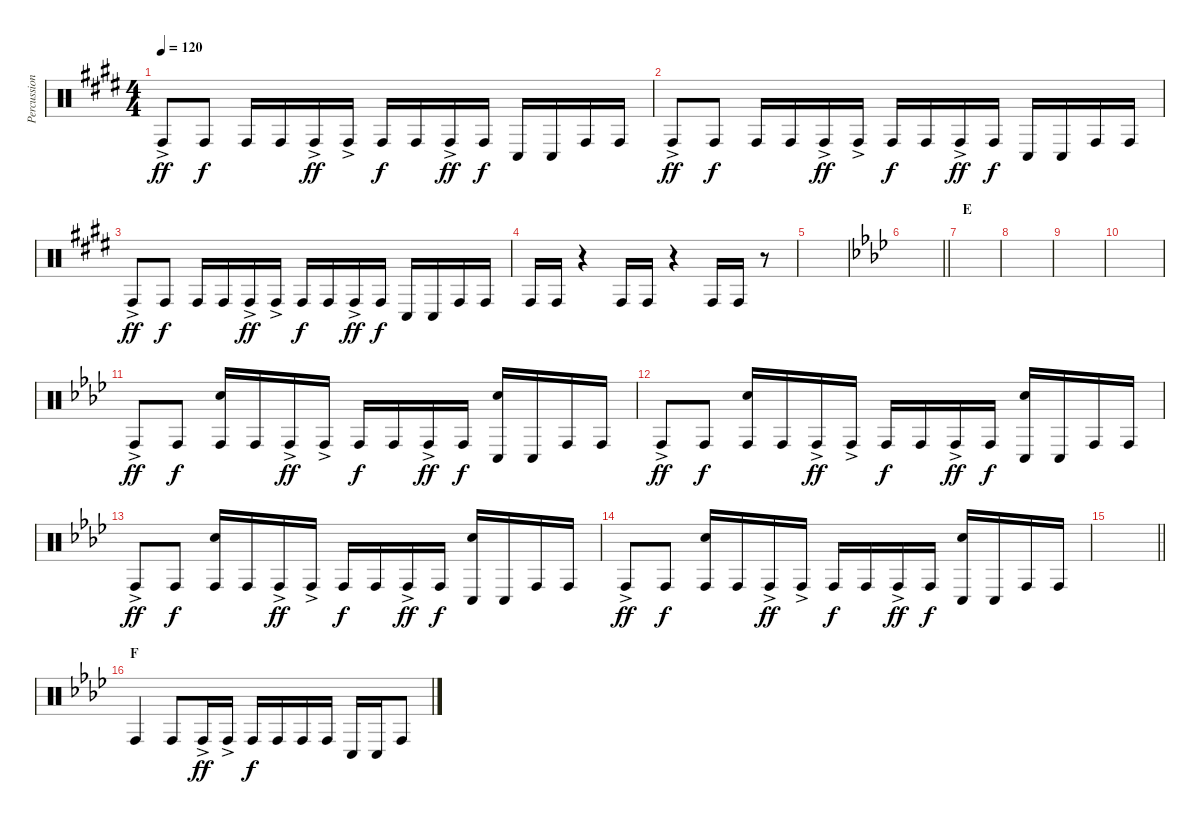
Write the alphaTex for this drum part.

\track ("Percussion" "Percussion") {instrument percussion}
\staff {score}
\articulation defaults
\ts (4 4)
\tempo 120
\clef neutral
\ks e "Conga high (hit)"{ac}.8{dy ff} "Conga high (hit)".8{dy f} "Conga high (hit)".16 "Conga high (hit)".16 "Conga high (hit)"{ac}.16{dy ff} "Conga high (hit)"{ac}.16 "Conga high (hit)".16{dy f} "Conga high (hit)".16 "Conga high (hit)"{ac}.16{dy ff} "Conga high (hit)".16{dy f} "Conga low (hit)".16 "Conga low (hit)".16 "Conga high (hit)".16 "Conga high (hit)".16
|
"Conga high (hit)"{ac}.8{dy ff} "Conga high (hit)".8{dy f} "Conga high (hit)".16 "Conga high (hit)".16 "Conga high (hit)"{ac}.16{dy ff} "Conga high (hit)"{ac}.16 "Conga high (hit)".16{dy f} "Conga high (hit)".16 "Conga high (hit)"{ac}.16{dy ff} "Conga high (hit)".16{dy f} "Conga low (hit)".16 "Conga low (hit)".16 "Conga high (hit)".16 "Conga high (hit)".16 |
"Conga high (hit)"{ac}.8{dy ff} "Conga high (hit)".8{dy f} "Conga high (hit)".16 "Conga high (hit)".16 "Conga high (hit)"{ac}.16{dy ff} "Conga high (hit)"{ac}.16 "Conga high (hit)".16{dy f} "Conga high (hit)".16 "Conga high (hit)"{ac}.16{dy ff} "Conga high (hit)".16{dy f} "Conga low (hit)".16 "Conga low (hit)".16 "Conga high (hit)".16 "Conga high (hit)".16 |
"Conga high (hit)".16 "Conga high (hit)".16 r.4 "Conga high (hit)".16 "Conga high (hit)".16 r.4 "Conga high (hit)".16 "Conga high (hit)".16 r.8 |
|
\barLineRight lightlight
\ks ab
|
\section ("" "E")
|
|
|
|
"Conga high (hit)"{ac}.8{dy ff} "Conga high (hit)".8{dy f} ("Conga high (hit)" "Hand Clap (hit)").16 "Conga high (hit)".16 "Conga high (hit)"{ac}.16{dy ff} "Conga high (hit)"{ac}.16 "Conga high (hit)".16{dy f} "Conga high (hit)".16 "Conga high (hit)"{ac}.16{dy ff} "Conga high (hit)".16{dy f} ("Conga low (hit)" "Hand Clap (hit)").16 "Conga low (hit)".16 "Conga high (hit)".16 "Conga high (hit)".16 |
"Conga high (hit)"{ac}.8{dy ff} "Conga high (hit)".8{dy f} ("Conga high (hit)" "Hand Clap (hit)").16 "Conga high (hit)".16 "Conga high (hit)"{ac}.16{dy ff} "Conga high (hit)"{ac}.16 "Conga high (hit)".16{dy f} "Conga high (hit)".16 "Conga high (hit)"{ac}.16{dy ff} "Conga high (hit)".16{dy f} ("Conga low (hit)" "Hand Clap (hit)").16 "Conga low (hit)".16 "Conga high (hit)".16 "Conga high (hit)".16 |
"Conga high (hit)"{ac}.8{dy ff} "Conga high (hit)".8{dy f} ("Conga high (hit)" "Hand Clap (hit)").16 "Conga high (hit)".16 "Conga high (hit)"{ac}.16{dy ff} "Conga high (hit)"{ac}.16 "Conga high (hit)".16{dy f} "Conga high (hit)".16 "Conga high (hit)"{ac}.16{dy ff} "Conga high (hit)".16{dy f} ("Conga low (hit)" "Hand Clap (hit)").16 "Conga low (hit)".16 "Conga high (hit)".16 "Conga high (hit)".16 |
"Conga high (hit)"{ac}.8{dy ff} "Conga high (hit)".8{dy f} ("Conga high (hit)" "Hand Clap (hit)").16 "Conga high (hit)".16 "Conga high (hit)"{ac}.16{dy ff} "Conga high (hit)"{ac}.16 "Conga high (hit)".16{dy f} "Conga high (hit)".16 "Conga high (hit)"{ac}.16{dy ff} "Conga high (hit)".16{dy f} ("Conga low (hit)" "Hand Clap (hit)").16 "Conga low (hit)".16 "Conga high (hit)".16 "Conga high (hit)".16 |
\barLineRight lightlight
|
\section ("" "F")
"Conga high (hit)".4 "Conga high (hit)".8 "Conga high (hit)"{ac}.16{dy ff} "Conga high (hit)"{ac}.16 "Conga high (hit)".16{dy f} "Conga high (hit)".16 "Conga high (hit)".16 "Conga high (hit)".16 "Conga low (hit)".16 "Conga low (hit)".16 "Conga high (hit)".8
